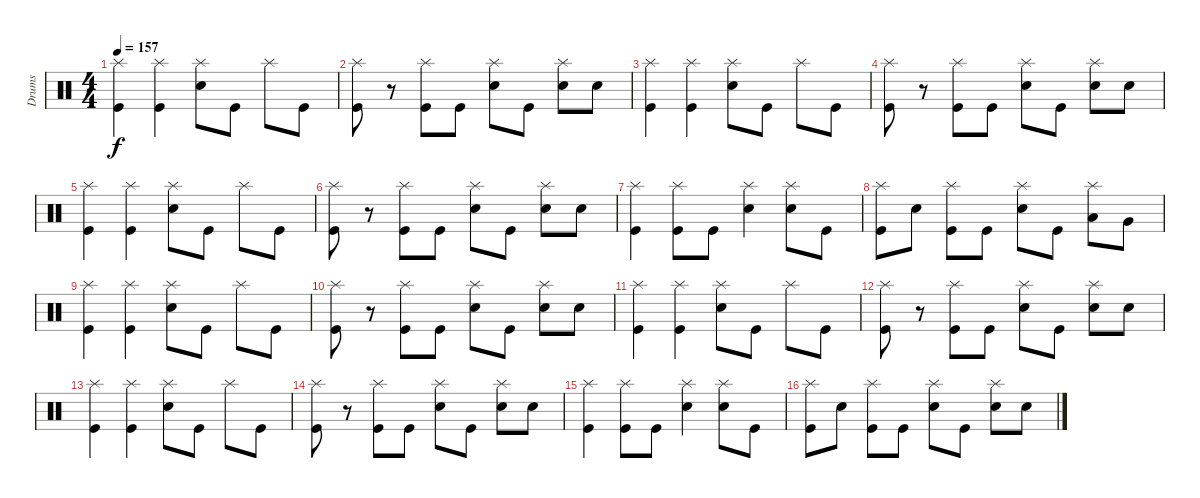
\track ("Drums" "Drums") {instrument percussion}
\staff {score}
\articulation defaults
\ts (4 4)
\tempo 157
\clef neutral
\ks c
("Splash (hit)" "Kick (hit)").4{dy f} ("Splash (hit)" "Kick (hit)").4 ("Splash (hit)" "Electric Snare (hit)").8 "Kick (hit)".8 "Splash (hit)".8 "Kick (hit)".8 |
("Splash (hit)" "Kick (hit)").8 r.8 ("Splash (hit)" "Kick (hit)").8 "Kick (hit)".8 ("Splash (hit)" "Electric Snare (hit)").8 "Kick (hit)".8 ("Splash (hit)" "Electric Snare (hit)").8 "Electric Snare (hit)".8 |
("Splash (hit)" "Kick (hit)").4 ("Splash (hit)" "Kick (hit)").4 ("Splash (hit)" "Electric Snare (hit)").8 "Kick (hit)".8 "Splash (hit)".8 "Kick (hit)".8 |
("Splash (hit)" "Kick (hit)").8 r.8 ("Splash (hit)" "Kick (hit)").8 "Kick (hit)".8 ("Splash (hit)" "Electric Snare (hit)").8 "Kick (hit)".8 ("Splash (hit)" "Electric Snare (hit)").8 "Electric Snare (hit)".8 |
("Splash (hit)" "Kick (hit)").4 ("Splash (hit)" "Kick (hit)").4 ("Splash (hit)" "Electric Snare (hit)").8 "Kick (hit)".8 "Splash (hit)".8 "Kick (hit)".8 |
("Splash (hit)" "Kick (hit)").8 r.8 ("Splash (hit)" "Kick (hit)").8 "Kick (hit)".8 ("Splash (hit)" "Electric Snare (hit)").8 "Kick (hit)".8 ("Splash (hit)" "Electric Snare (hit)").8 "Electric Snare (hit)".8 |
("Splash (hit)" "Kick (hit)").4 ("Splash (hit)" "Kick (hit)").8 "Kick (hit)".8 ("Splash (hit)" "Electric Snare (hit)").4 ("Splash (hit)" "Electric Snare (hit)").8 "Kick (hit)".8 |
("Splash (hit)" "Kick (hit)").8 "Electric Snare (hit)".8 ("Splash (hit)" "Kick (hit)").8 "Kick (hit)".8 ("Splash (hit)" "Electric Snare (hit)").8 "Kick (hit)".8 ("Splash (hit)" "Low Tom (hit)").8 "Very Low Tom (hit)".8 |
("Splash (hit)" "Kick (hit)").4 ("Splash (hit)" "Kick (hit)").4 ("Splash (hit)" "Electric Snare (hit)").8 "Kick (hit)".8 "Splash (hit)".8 "Kick (hit)".8 |
("Splash (hit)" "Kick (hit)").8 r.8 ("Splash (hit)" "Kick (hit)").8 "Kick (hit)".8 ("Splash (hit)" "Electric Snare (hit)").8 "Kick (hit)".8 ("Splash (hit)" "Electric Snare (hit)").8 "Electric Snare (hit)".8 |
("Splash (hit)" "Kick (hit)").4 ("Splash (hit)" "Kick (hit)").4 ("Splash (hit)" "Electric Snare (hit)").8 "Kick (hit)".8 "Splash (hit)".8 "Kick (hit)".8 |
("Splash (hit)" "Kick (hit)").8 r.8 ("Splash (hit)" "Kick (hit)").8 "Kick (hit)".8 ("Splash (hit)" "Electric Snare (hit)").8 "Kick (hit)".8 ("Splash (hit)" "Electric Snare (hit)").8 "Electric Snare (hit)".8 |
("Splash (hit)" "Kick (hit)").4 ("Splash (hit)" "Kick (hit)").4 ("Splash (hit)" "Electric Snare (hit)").8 "Kick (hit)".8 "Splash (hit)".8 "Kick (hit)".8 |
("Splash (hit)" "Kick (hit)").8 r.8 ("Splash (hit)" "Kick (hit)").8 "Kick (hit)".8 ("Splash (hit)" "Electric Snare (hit)").8 "Kick (hit)".8 ("Splash (hit)" "Electric Snare (hit)").8 "Electric Snare (hit)".8 |
("Splash (hit)" "Kick (hit)").4 ("Splash (hit)" "Kick (hit)").8 "Kick (hit)".8 ("Splash (hit)" "Electric Snare (hit)").4 ("Splash (hit)" "Electric Snare (hit)").8 "Kick (hit)".8 |
("Splash (hit)" "Kick (hit)").8 "Electric Snare (hit)".8 ("Splash (hit)" "Kick (hit)").8 "Kick (hit)".8 ("Splash (hit)" "Electric Snare (hit)").8 "Kick (hit)".8 ("Splash (hit)" "Electric Snare (hit)").8 "Electric Snare (hit)".8
